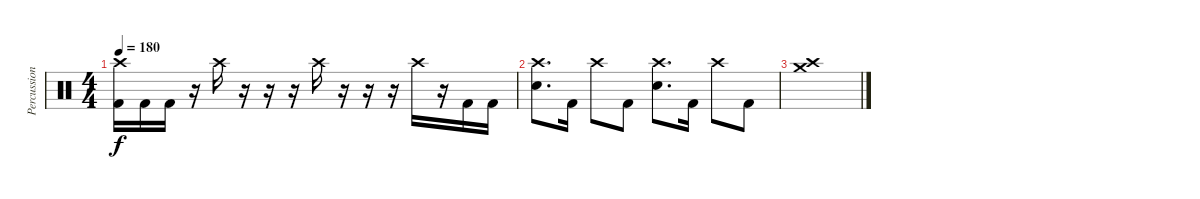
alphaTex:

\track ("Percussion" "Percussion") {instrument percussion}
\staff {score}
\articulation defaults
\ts (4 4)
\tempo 180
\clef neutral
\ks c
("Crash high (hit)" "Kick (hit) 2").16{dy f} "Kick (hit) 2".16 "Kick (hit) 2".16 r.16 "Crash high (hit)".16 r.16 r.16 r.16 "Crash high (hit)".16 r.16 r.16 r.16 "Crash high (hit)".16 r.16 "Kick (hit) 2".16 "Kick (hit) 2".16 |
("Crash high (hit)" "Electric Snare (hit)").8{d} "Kick (hit) 2".16 "Crash high (hit)".8 "Kick (hit) 2".8 ("Crash high (hit)" "Electric Snare (hit)").8{d} "Kick (hit) 2".16 "Crash high (hit)".8 "Kick (hit) 2".8 |
("Crash medium (hit)" "Crash high (hit)").1
